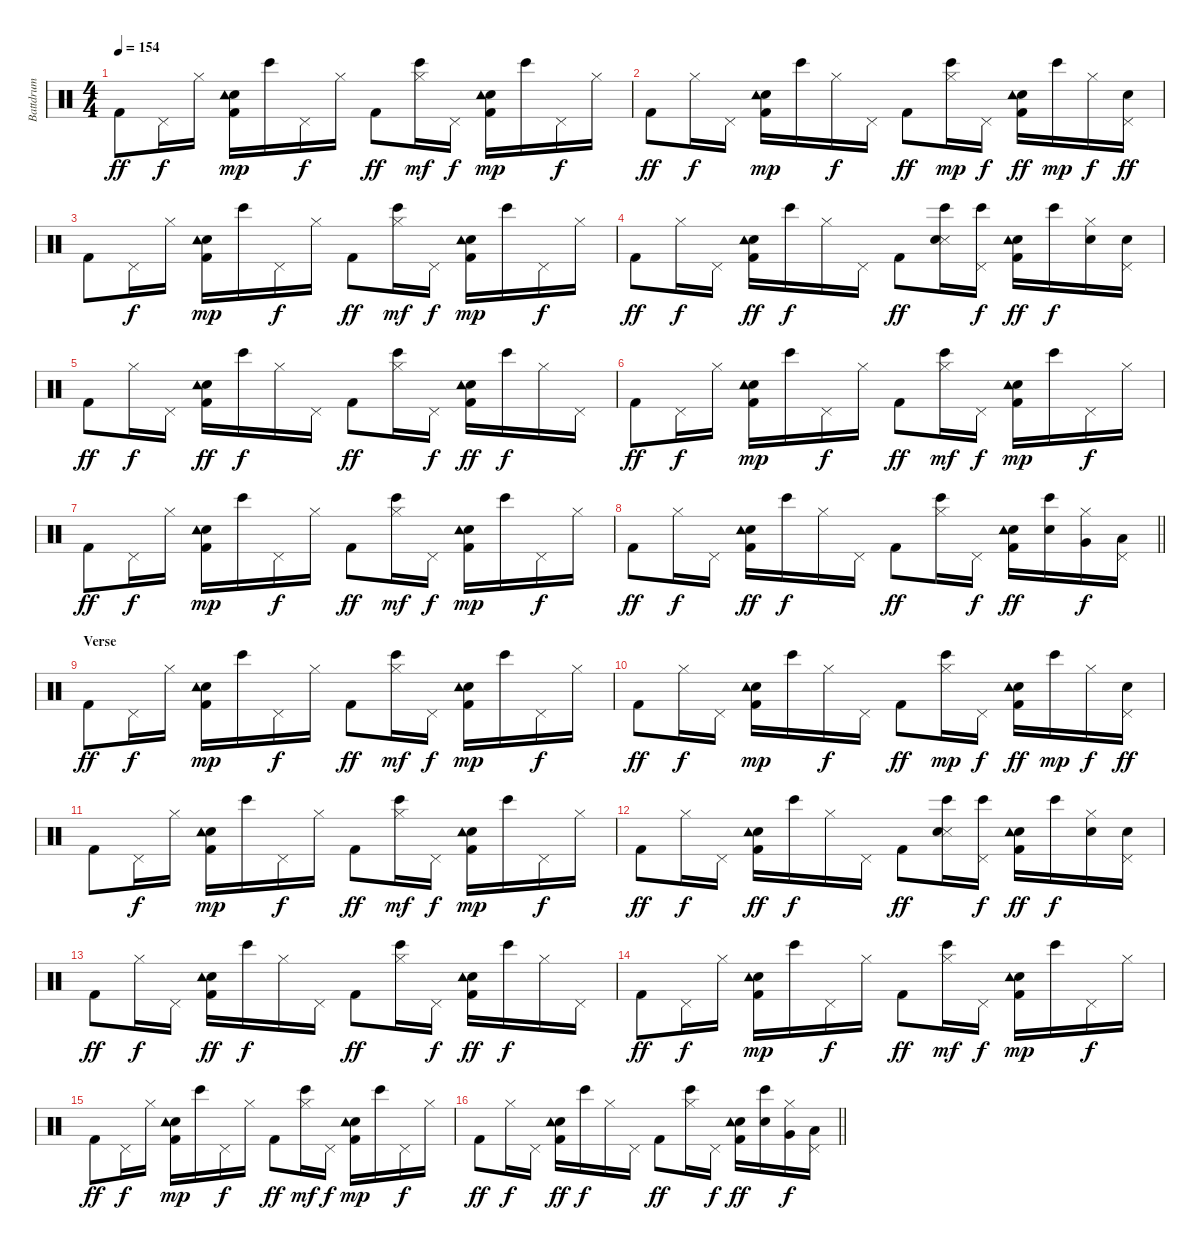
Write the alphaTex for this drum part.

\track ("Battdrum" "Battdrum") {instrument percussion}
\staff {score}
\articulation defaults
\ts (4 4)
\tempo 154
\clef neutral
\ks c "Kick (hit) 2".8{dy ff} "Pedal Hi-Hat (hit)".16{dy f} "Hi-Hat (closed)".16
("Kick (hit) 2" "Electric Snare (hit)" "Tambourine (hit)").16{dy mp} "Bongo High (hit)".16 "Pedal Hi-Hat (hit)".16{dy f} "Hi-Hat (closed)".16 "Kick (hit) 2".8{dy ff} ("Bongo High (hit)" "Hi-Hat (closed)").16{dy mf} "Pedal Hi-Hat (hit)".16{dy f} ("Kick (hit) 2" "Electric Snare (hit)" "Tambourine (hit)").16{dy mp} "Bongo High (hit)".16 "Pedal Hi-Hat (hit)".16{dy f} "Hi-Hat (closed)".16 |
"Kick (hit) 2".8{dy ff} "Hi-Hat (closed)".16{dy f} "Pedal Hi-Hat (hit)".16 ("Kick (hit) 2" "Electric Snare (hit)" "Tambourine (hit)").16{dy mp} "Bongo High (hit)".16 "Hi-Hat (closed)".16{dy f} "Pedal Hi-Hat (hit)".16 "Kick (hit) 2".8{dy ff} ("Bongo High (hit)" "Hi-Hat (closed)").16{dy mp} "Pedal Hi-Hat (hit)".16{dy f} ("Kick (hit) 2" "Electric Snare (hit)" "Tambourine (hit)").16{dy ff} "Bongo High (hit)".16{dy mp} "Hi-Hat (closed)".16{dy f} ("Electric Snare (hit)" "Pedal Hi-Hat (hit)").16{dy ff} |
"Kick (hit) 2".8 "Pedal Hi-Hat (hit)".16{dy f} "Hi-Hat (closed)".16 ("Kick (hit) 2" "Electric Snare (hit)" "Tambourine (hit)").16{dy mp} "Bongo High (hit)".16 "Pedal Hi-Hat (hit)".16{dy f} "Hi-Hat (closed)".16 "Kick (hit) 2".8{dy ff} ("Bongo High (hit)" "Hi-Hat (closed)").16{dy mf} "Pedal Hi-Hat (hit)".16{dy f} ("Kick (hit) 2" "Electric Snare (hit)" "Tambourine (hit)").16{dy mp} "Bongo High (hit)".16 "Pedal Hi-Hat (hit)".16{dy f} "Hi-Hat (closed)".16 |
"Kick (hit) 2".8{dy ff} "Hi-Hat (closed)".16{dy f} "Pedal Hi-Hat (hit)".16 ("Kick (hit) 2" "Electric Snare (hit)" "Tambourine (hit)").16{dy ff} "Bongo High (hit)".16{dy f} "Hi-Hat (closed)".16 "Pedal Hi-Hat (hit)".16 "Kick (hit) 2".8{dy ff} ("Snare (side stick) 3" "Electric Snare (hit)" "Bongo High (hit)").16 ("Bongo High (hit)" "Pedal Hi-Hat (hit)").16{dy f} ("Kick (hit) 2" "Electric Snare (hit)" "Tambourine (hit)").16{dy ff} "Bongo High (hit)".16{dy f} ("Electric Snare (hit)" "Hi-Hat (closed)").16 ("Electric Snare (hit)" "Pedal Hi-Hat (hit)").16 |
"Kick (hit) 2".8{dy ff} "Hi-Hat (closed)".16{dy f} "Pedal Hi-Hat (hit)".16 ("Kick (hit) 2" "Electric Snare (hit)" "Tambourine (hit)").16{dy ff} "Bongo High (hit)".16{dy f} "Hi-Hat (closed)".16 "Pedal Hi-Hat (hit)".16 "Kick (hit) 2".8{dy ff} ("Bongo High (hit)" "Hi-Hat (closed)").16 "Pedal Hi-Hat (hit)".16{dy f} ("Kick (hit) 2" "Electric Snare (hit)" "Tambourine (hit)").16{dy ff} "Bongo High (hit)".16{dy f} "Hi-Hat (closed)".16 "Pedal Hi-Hat (hit)".16 |
"Kick (hit) 2".8{dy ff} "Pedal Hi-Hat (hit)".16{dy f} "Hi-Hat (closed)".16 ("Kick (hit) 2" "Electric Snare (hit)" "Tambourine (hit)").16{dy mp} "Bongo High (hit)".16 "Pedal Hi-Hat (hit)".16{dy f} "Hi-Hat (closed)".16 "Kick (hit) 2".8{dy ff} ("Bongo High (hit)" "Hi-Hat (closed)").16{dy mf} "Pedal Hi-Hat (hit)".16{dy f} ("Kick (hit) 2" "Electric Snare (hit)" "Tambourine (hit)").16{dy mp} "Bongo High (hit)".16 "Pedal Hi-Hat (hit)".16{dy f} "Hi-Hat (closed)".16 |
"Kick (hit) 2".8{dy ff} "Pedal Hi-Hat (hit)".16{dy f} "Hi-Hat (closed)".16 ("Kick (hit) 2" "Electric Snare (hit)" "Tambourine (hit)").16{dy mp} "Bongo High (hit)".16 "Pedal Hi-Hat (hit)".16{dy f} "Hi-Hat (closed)".16 "Kick (hit) 2".8{dy ff} ("Bongo High (hit)" "Hi-Hat (closed)").16{dy mf} "Pedal Hi-Hat (hit)".16{dy f} ("Kick (hit) 2" "Electric Snare (hit)" "Tambourine (hit)").16{dy mp} "Bongo High (hit)".16 "Pedal Hi-Hat (hit)".16{dy f} "Hi-Hat (closed)".16 |
\barLineRight lightlight "Kick (hit) 2".8{dy ff} "Hi-Hat (closed)".16{dy f} "Pedal Hi-Hat (hit)".16
("Kick (hit) 2" "Electric Snare (hit)" "Tambourine (hit)").16{dy ff} "Bongo High (hit)".16{dy f} "Hi-Hat (closed)".16 "Pedal Hi-Hat (hit)".16 "Kick (hit) 2".8{dy ff} ("Bongo High (hit)" "Hi-Hat (closed)").16 "Pedal Hi-Hat (hit)".16{dy f} ("Kick (hit) 2" "Electric Snare (hit)" "Tambourine (hit)").16{dy ff} ("Electric Snare (hit)" "Bongo High (hit)").16 ("Hi-Hat (closed)" "Very Low Tom (hit)").16{dy f} ("Pedal Hi-Hat (hit)" "Low Tom (hit)").16 |
\section ("" "Verse")
"Kick (hit) 2".8{dy ff} "Pedal Hi-Hat (hit)".16{dy f} "Hi-Hat (closed)".16 ("Kick (hit) 2" "Electric Snare (hit)" "Tambourine (hit)").16{dy mp} "Bongo High (hit)".16 "Pedal Hi-Hat (hit)".16{dy f} "Hi-Hat (closed)".16 "Kick (hit) 2".8{dy ff} ("Bongo High (hit)" "Hi-Hat (closed)").16{dy mf} "Pedal Hi-Hat (hit)".16{dy f} ("Kick (hit) 2" "Electric Snare (hit)" "Tambourine (hit)").16{dy mp} "Bongo High (hit)".16 "Pedal Hi-Hat (hit)".16{dy f} "Hi-Hat (closed)".16 |
"Kick (hit) 2".8{dy ff} "Hi-Hat (closed)".16{dy f} "Pedal Hi-Hat (hit)".16 ("Kick (hit) 2" "Electric Snare (hit)" "Tambourine (hit)").16{dy mp} "Bongo High (hit)".16 "Hi-Hat (closed)".16{dy f} "Pedal Hi-Hat (hit)".16 "Kick (hit) 2".8{dy ff} ("Bongo High (hit)" "Hi-Hat (closed)").16{dy mp} "Pedal Hi-Hat (hit)".16{dy f} ("Kick (hit) 2" "Electric Snare (hit)" "Tambourine (hit)").16{dy ff} "Bongo High (hit)".16{dy mp} "Hi-Hat (closed)".16{dy f} ("Electric Snare (hit)" "Pedal Hi-Hat (hit)").16{dy ff} |
"Kick (hit) 2".8 "Pedal Hi-Hat (hit)".16{dy f} "Hi-Hat (closed)".16 ("Kick (hit) 2" "Electric Snare (hit)" "Tambourine (hit)").16{dy mp} "Bongo High (hit)".16 "Pedal Hi-Hat (hit)".16{dy f} "Hi-Hat (closed)".16 "Kick (hit) 2".8{dy ff} ("Bongo High (hit)" "Hi-Hat (closed)").16{dy mf} "Pedal Hi-Hat (hit)".16{dy f} ("Kick (hit) 2" "Electric Snare (hit)" "Tambourine (hit)").16{dy mp} "Bongo High (hit)".16 "Pedal Hi-Hat (hit)".16{dy f} "Hi-Hat (closed)".16 |
"Kick (hit) 2".8{dy ff} "Hi-Hat (closed)".16{dy f} "Pedal Hi-Hat (hit)".16 ("Kick (hit) 2" "Electric Snare (hit)" "Tambourine (hit)").16{dy ff} "Bongo High (hit)".16{dy f} "Hi-Hat (closed)".16 "Pedal Hi-Hat (hit)".16 "Kick (hit) 2".8{dy ff} ("Snare (side stick) 3" "Electric Snare (hit)" "Bongo High (hit)").16 ("Bongo High (hit)" "Pedal Hi-Hat (hit)").16{dy f} ("Kick (hit) 2" "Electric Snare (hit)" "Tambourine (hit)").16{dy ff} "Bongo High (hit)".16{dy f} ("Electric Snare (hit)" "Hi-Hat (closed)").16 ("Electric Snare (hit)" "Pedal Hi-Hat (hit)").16 |
"Kick (hit) 2".8{dy ff} "Hi-Hat (closed)".16{dy f} "Pedal Hi-Hat (hit)".16 ("Kick (hit) 2" "Electric Snare (hit)" "Tambourine (hit)").16{dy ff} "Bongo High (hit)".16{dy f} "Hi-Hat (closed)".16 "Pedal Hi-Hat (hit)".16 "Kick (hit) 2".8{dy ff} ("Bongo High (hit)" "Hi-Hat (closed)").16 "Pedal Hi-Hat (hit)".16{dy f} ("Kick (hit) 2" "Electric Snare (hit)" "Tambourine (hit)").16{dy ff} "Bongo High (hit)".16{dy f} "Hi-Hat (closed)".16 "Pedal Hi-Hat (hit)".16 |
"Kick (hit) 2".8{dy ff} "Pedal Hi-Hat (hit)".16{dy f} "Hi-Hat (closed)".16 ("Kick (hit) 2" "Electric Snare (hit)" "Tambourine (hit)").16{dy mp} "Bongo High (hit)".16 "Pedal Hi-Hat (hit)".16{dy f} "Hi-Hat (closed)".16 "Kick (hit) 2".8{dy ff} ("Bongo High (hit)" "Hi-Hat (closed)").16{dy mf} "Pedal Hi-Hat (hit)".16{dy f} ("Kick (hit) 2" "Electric Snare (hit)" "Tambourine (hit)").16{dy mp} "Bongo High (hit)".16 "Pedal Hi-Hat (hit)".16{dy f} "Hi-Hat (closed)".16 |
"Kick (hit) 2".8{dy ff} "Pedal Hi-Hat (hit)".16{dy f} "Hi-Hat (closed)".16 ("Kick (hit) 2" "Electric Snare (hit)" "Tambourine (hit)").16{dy mp} "Bongo High (hit)".16 "Pedal Hi-Hat (hit)".16{dy f} "Hi-Hat (closed)".16 "Kick (hit) 2".8{dy ff} ("Bongo High (hit)" "Hi-Hat (closed)").16{dy mf} "Pedal Hi-Hat (hit)".16{dy f} ("Kick (hit) 2" "Electric Snare (hit)" "Tambourine (hit)").16{dy mp} "Bongo High (hit)".16 "Pedal Hi-Hat (hit)".16{dy f} "Hi-Hat (closed)".16 |
\barLineRight lightlight "Kick (hit) 2".8{dy ff} "Hi-Hat (closed)".16{dy f} "Pedal Hi-Hat (hit)".16
("Kick (hit) 2" "Electric Snare (hit)" "Tambourine (hit)").16{dy ff} "Bongo High (hit)".16{dy f} "Hi-Hat (closed)".16 "Pedal Hi-Hat (hit)".16 "Kick (hit) 2".8{dy ff} ("Bongo High (hit)" "Hi-Hat (closed)").16 "Pedal Hi-Hat (hit)".16{dy f} ("Kick (hit) 2" "Electric Snare (hit)" "Tambourine (hit)").16{dy ff} ("Electric Snare (hit)" "Bongo High (hit)").16 ("Hi-Hat (closed)" "Very Low Tom (hit)").16{dy f} ("Pedal Hi-Hat (hit)" "Low Tom (hit)").16
